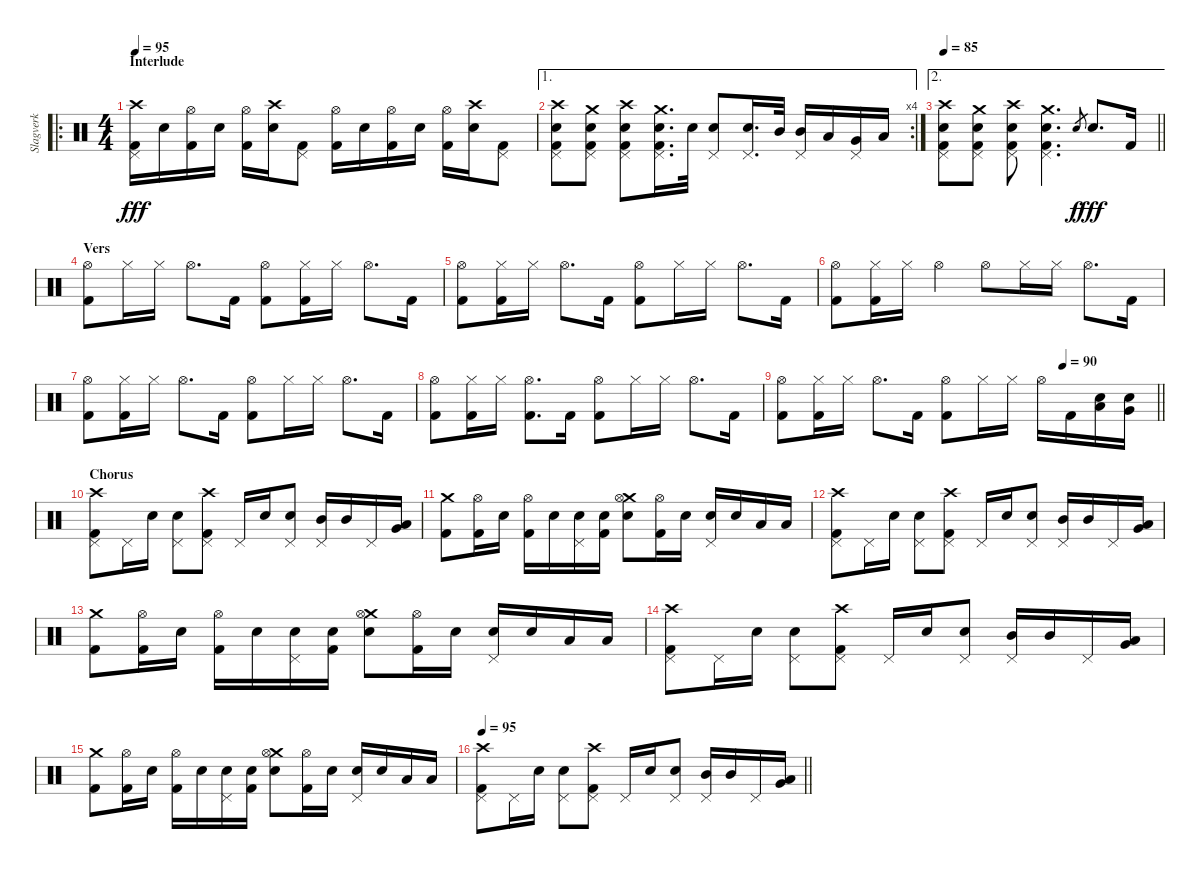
\track ("Slagverk" "Slagverk") {instrument percussion}
\staff {score}
\articulation defaults
\ro
\ts (4 4)
\section ("" "Interlude")
\tempo 95
\clef neutral
\ks c
("Crash high (hit)" "Pedal Hi-Hat (hit)" "Kick (hit) 2").16{dy fff} "Snare (hit) 2".16 ("Hi-Hat (open)" "Kick (hit) 2").16 "Snare (hit) 2".16 ("Hi-Hat (open)" "Kick (hit) 2").16 ("Crash high (hit)" "Snare (hit) 2").16 ("Pedal Hi-Hat (hit)" "Kick (hit) 2").8 ("Hi-Hat (open)" "Kick (hit) 2").16 "Snare (hit) 2".16 ("Hi-Hat (open)" "Kick (hit) 2").16 "Snare (hit) 2".16 ("Hi-Hat (open)" "Kick (hit) 2").16 ("Crash high (hit)" "Snare (hit) 2").16 ("Pedal Hi-Hat (hit)" "Kick (hit) 2").8 |
\ae 1
\rc 4
("Crash high (hit)" "Pedal Hi-Hat (hit)" "Snare (hit) 2" "Kick (hit) 2").8 ("Crash medium (hit)" "Pedal Hi-Hat (hit)" "Snare (hit) 2" "Kick (hit) 2").8 ("Crash high (hit)" "Pedal Hi-Hat (hit)" "Snare (hit) 2" "Kick (hit) 2").8 ("Crash medium (hit)" "Pedal Hi-Hat (hit)" "Snare (hit) 2" "Kick (hit) 2").16{d} "Snare (hit) 2".32 ("Pedal Hi-Hat (hit)" "Snare (hit) 2").8 ("Pedal Hi-Hat (hit)" "Snare (hit) 2").16{d} "Mid Tom (hit)".32 ("Pedal Hi-Hat (hit)" "Mid Tom (hit)").16 "Low Tom (hit)".16 ("Pedal Hi-Hat (hit)" "Very Low Tom (hit)").16 "Low Floor Tom (hit)".16 |
\ae 2
\tempo 85
\barLineRight lightlight
("Crash high (hit)" "Pedal Hi-Hat (hit)" "Snare (hit) 2" "Kick (hit) 2").8 ("Crash medium (hit)" "Pedal Hi-Hat (hit)" "Snare (hit) 2" "Kick (hit) 2").8 ("Crash high (hit)" "Pedal Hi-Hat (hit)" "Snare (hit) 2" "Kick (hit) 2").8 ("Crash medium (hit)" "Pedal Hi-Hat (hit)" "Snare (hit) 2" "Kick (hit) 2").4{d} "Snare (hit) 2".8{gr dy f} "Snare (hit) 2".8{d dy fff} "Kick (hit) 2".16 |
\section ("" "Vers")
("Hi-Hat (open)" "Kick (hit) 2").8 "Hi-Hat (closed)".16 "Hi-Hat (closed)".16 "Hi-Hat (open)".8{d} "Kick (hit) 2".16 ("Hi-Hat (open)" "Kick (hit) 2").8 ("Hi-Hat (closed)" "Kick (hit) 2").16 "Hi-Hat (closed)".16 "Hi-Hat (open)".8{d} "Kick (hit) 2".16 |
("Hi-Hat (open)" "Kick (hit) 2").8 ("Hi-Hat (closed)" "Kick (hit) 2").16 "Hi-Hat (closed)".16 "Hi-Hat (open)".8{d} "Kick (hit) 2".16 ("Hi-Hat (open)" "Kick (hit) 2").8 "Hi-Hat (closed)".16 "Hi-Hat (closed)".16 "Hi-Hat (open)".8{d} "Kick (hit) 2".16 |
("Hi-Hat (open)" "Kick (hit) 2").8 ("Hi-Hat (closed)" "Kick (hit) 2").16 "Hi-Hat (closed)".16 "Hi-Hat (open)".4 "Hi-Hat (open)".8 "Hi-Hat (closed)".16 "Hi-Hat (closed)".16 "Hi-Hat (open)".8{d} "Kick (hit) 2".16 |
("Hi-Hat (open)" "Kick (hit) 2").8 ("Hi-Hat (closed)" "Kick (hit) 2").16 "Hi-Hat (closed)".16 "Hi-Hat (open)".8{d} "Kick (hit) 2".16 ("Hi-Hat (open)" "Kick (hit) 2").8 "Hi-Hat (closed)".16 "Hi-Hat (closed)".16 "Hi-Hat (open)".8{d} "Kick (hit) 2".16 |
("Hi-Hat (open)" "Kick (hit) 2").8 ("Hi-Hat (closed)" "Kick (hit) 2").16 "Hi-Hat (closed)".16 ("Hi-Hat (open)" "Kick (hit) 2").8{d} "Kick (hit) 2".16 ("Hi-Hat (open)" "Kick (hit) 2").8 "Hi-Hat (closed)".16 "Hi-Hat (closed)".16 "Hi-Hat (open)".8{d} "Kick (hit) 2".16 |
\tempo (90 0.75)
\barLineRight lightlight
("Hi-Hat (open)" "Kick (hit) 2").8 ("Hi-Hat (closed)" "Kick (hit) 2").16 "Hi-Hat (closed)".16 "Hi-Hat (open)".8{d} "Kick (hit) 2".16 ("Hi-Hat (open)" "Kick (hit) 2").8 "Hi-Hat (closed)".16 "Hi-Hat (closed)".16 "Hi-Hat (open)".16 "Kick (hit) 2".16 ("Low Tom (hit)" "Snare (hit) 2").16 ("Very Low Tom (hit)" "Snare (hit) 2").16 |
\section ("" "Chorus")
("Crash high (hit)" "Pedal Hi-Hat (hit)" "Kick (hit) 2").8 "Pedal Hi-Hat (hit)".16 "Snare (hit) 2".16 ("Pedal Hi-Hat (hit)" "Snare (hit) 2").8 ("Crash high (hit)" "Pedal Hi-Hat (hit)" "Kick (hit) 2").8 "Pedal Hi-Hat (hit)".16 "Snare (hit) 2".16 ("Pedal Hi-Hat (hit)" "Snare (hit) 2").8 ("Pedal Hi-Hat (hit)" "Mid Tom (hit)").16 "Mid Tom (hit)".16 "Pedal Hi-Hat (hit)".16 ("Low Tom (hit)" "Very Low Tom (hit)").16 |
("Crash medium (hit)" "Kick (hit) 2").8 ("Hi-Hat (open)" "Kick (hit) 2").16 "Snare (hit) 2".16 ("Hi-Hat (open)" "Kick (hit) 2").16 "Snare (hit) 2".16 ("Pedal Hi-Hat (hit)" "Snare (hit) 2").16 ("Snare (hit) 2" "Kick (hit) 2").16 ("Crash medium (hit)" "Hi-Hat (open)" "Snare (hit) 2").8 ("Hi-Hat (open)" "Kick (hit) 2").16 "Snare (hit) 2".16 ("Pedal Hi-Hat (hit)" "Snare (hit) 2").16 "Snare (hit) 2".16 "Low Tom (hit)".16 "Low Tom (hit)".16 |
("Crash high (hit)" "Pedal Hi-Hat (hit)" "Kick (hit) 2").8 "Pedal Hi-Hat (hit)".16 "Snare (hit) 2".16 ("Pedal Hi-Hat (hit)" "Snare (hit) 2").8 ("Crash high (hit)" "Pedal Hi-Hat (hit)" "Kick (hit) 2").8 "Pedal Hi-Hat (hit)".16 "Snare (hit) 2".16 ("Pedal Hi-Hat (hit)" "Snare (hit) 2").8 ("Pedal Hi-Hat (hit)" "Mid Tom (hit)").16 "Mid Tom (hit)".16 "Pedal Hi-Hat (hit)".16 ("Low Tom (hit)" "Very Low Tom (hit)").16 |
("Crash medium (hit)" "Kick (hit) 2").8 ("Hi-Hat (open)" "Kick (hit) 2").16 "Snare (hit) 2".16 ("Hi-Hat (open)" "Kick (hit) 2").16 "Snare (hit) 2".16 ("Pedal Hi-Hat (hit)" "Snare (hit) 2").16 ("Snare (hit) 2" "Kick (hit) 2").16 ("Crash medium (hit)" "Hi-Hat (open)" "Snare (hit) 2").8 ("Hi-Hat (open)" "Kick (hit) 2").16 "Snare (hit) 2".16 ("Pedal Hi-Hat (hit)" "Snare (hit) 2").16 "Snare (hit) 2".16 "Low Tom (hit)".16 "Low Tom (hit)".16 |
("Crash high (hit)" "Pedal Hi-Hat (hit)" "Kick (hit) 2").8 "Pedal Hi-Hat (hit)".16 "Snare (hit) 2".16 ("Pedal Hi-Hat (hit)" "Snare (hit) 2").8 ("Crash high (hit)" "Pedal Hi-Hat (hit)" "Kick (hit) 2").8 "Pedal Hi-Hat (hit)".16 "Snare (hit) 2".16 ("Pedal Hi-Hat (hit)" "Snare (hit) 2").8 ("Pedal Hi-Hat (hit)" "Mid Tom (hit)").16 "Mid Tom (hit)".16 "Pedal Hi-Hat (hit)".16 ("Low Tom (hit)" "Very Low Tom (hit)").16 |
("Crash medium (hit)" "Kick (hit) 2").8 ("Hi-Hat (open)" "Kick (hit) 2").16 "Snare (hit) 2".16 ("Hi-Hat (open)" "Kick (hit) 2").16 "Snare (hit) 2".16 ("Pedal Hi-Hat (hit)" "Snare (hit) 2").16 ("Snare (hit) 2" "Kick (hit) 2").16 ("Crash medium (hit)" "Hi-Hat (open)" "Snare (hit) 2").8 ("Hi-Hat (open)" "Kick (hit) 2").16 "Snare (hit) 2".16 ("Pedal Hi-Hat (hit)" "Snare (hit) 2").16 "Snare (hit) 2".16 "Low Tom (hit)".16 "Low Tom (hit)".16 |
\tempo 95
\barLineRight lightlight
("Crash high (hit)" "Pedal Hi-Hat (hit)" "Kick (hit) 2").8 "Pedal Hi-Hat (hit)".16 "Snare (hit) 2".16 ("Pedal Hi-Hat (hit)" "Snare (hit) 2").8 ("Crash high (hit)" "Pedal Hi-Hat (hit)" "Kick (hit) 2").8 "Pedal Hi-Hat (hit)".16 "Snare (hit) 2".16 ("Pedal Hi-Hat (hit)" "Snare (hit) 2").8 ("Pedal Hi-Hat (hit)" "Mid Tom (hit)").16 "Mid Tom (hit)".16 "Pedal Hi-Hat (hit)".16 ("Low Tom (hit)" "Very Low Tom (hit)").16
